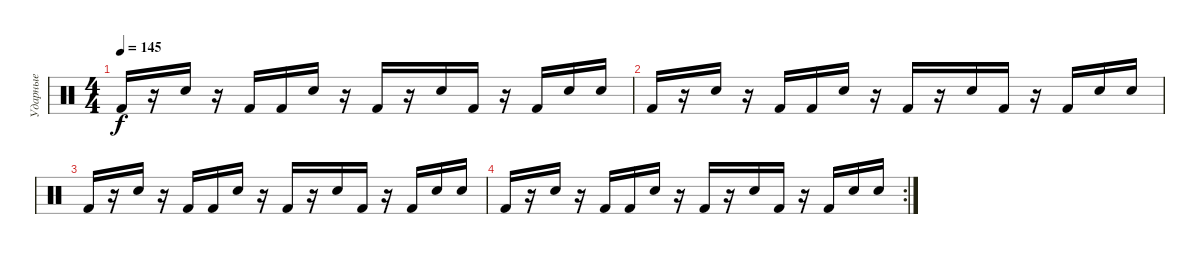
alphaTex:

\track ("Ударные" "Ударные") {instrument percussion}
\staff {score}
\articulation defaults
\ts (4 4)
\tempo 145
\clef neutral
\ks c "Kick (hit) 2".16{dy f}
r.16 "Electric Snare (hit)".16 r.16 "Kick (hit) 2".16 "Kick (hit) 2".16 "Electric Snare (hit)".16 r.16 "Kick (hit) 2".16 r.16 "Electric Snare (hit)".16 "Kick (hit) 2".16 r.16 "Kick (hit) 2".16 "Electric Snare (hit)".16 "Electric Snare (hit)".16 |
"Kick (hit) 2".16 r.16 "Electric Snare (hit)".16 r.16 "Kick (hit) 2".16 "Kick (hit) 2".16 "Electric Snare (hit)".16 r.16 "Kick (hit) 2".16 r.16 "Electric Snare (hit)".16 "Kick (hit) 2".16 r.16 "Kick (hit) 2".16 "Electric Snare (hit)".16 "Electric Snare (hit)".16 |
"Kick (hit) 2".16 r.16 "Electric Snare (hit)".16 r.16 "Kick (hit) 2".16 "Kick (hit) 2".16 "Electric Snare (hit)".16 r.16 "Kick (hit) 2".16 r.16 "Electric Snare (hit)".16 "Kick (hit) 2".16 r.16 "Kick (hit) 2".16 "Electric Snare (hit)".16 "Electric Snare (hit)".16 |
\rc 2 "Kick (hit) 2".16
r.16 "Electric Snare (hit)".16 r.16 "Kick (hit) 2".16 "Kick (hit) 2".16 "Electric Snare (hit)".16 r.16 "Kick (hit) 2".16 r.16 "Electric Snare (hit)".16 "Kick (hit) 2".16 r.16 "Kick (hit) 2".16 "Electric Snare (hit)".16 "Electric Snare (hit)".16
